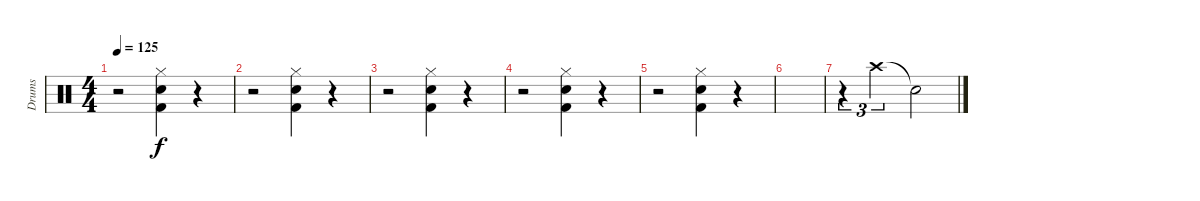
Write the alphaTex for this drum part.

\track ("Drums" "Drums") {instrument percussion}
\staff {score}
\articulation defaults
\ts (4 4)
\tempo 125
\clef neutral
\ks c
r.2{dy f} ("Hi-Hat (closed)" "Snare (hit) 2" "Kick (hit) 2").4 r.4 |
r.2 ("Hi-Hat (closed)" "Snare (hit) 2" "Kick (hit) 2").4 r.4 |
r.2 ("Hi-Hat (closed)" "Snare (hit) 2" "Kick (hit) 2").4 r.4 |
r.2 ("Hi-Hat (closed)" "Snare (hit) 2" "Kick (hit) 2").4 r.4 |
r.2 ("Hi-Hat (closed)" "Snare (hit) 2" "Kick (hit) 2").4 r.4 |
|
r.4{tu (3 2)} "Crash high (hit)".2{tu (3 2)} "Snare (hit)"{t}.2
